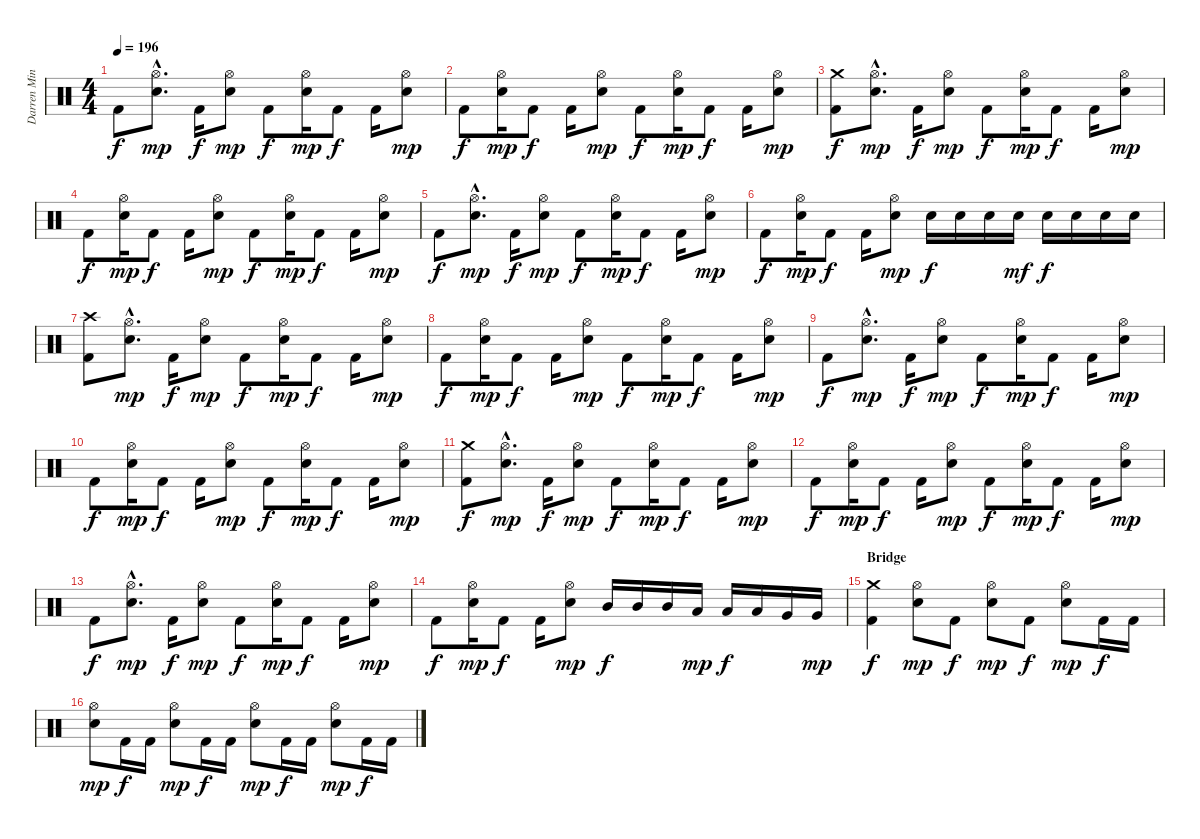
\track ("Darren Minter" "Darren Min") {instrument percussion}
\staff {score}
\articulation defaults
\ts (4 4)
\tempo 196
\clef neutral
\ks c "Kick (hit) 2".8{dy f}
("Hi-Hat (open)"{hac} "Snare (hit) 2"{hac}).8{d dy mp} "Kick (hit) 2".16{dy f} ("Hi-Hat (open)" "Snare (hit) 2").8{dy mp} "Kick (hit) 2".8{dy f} ("Hi-Hat (open)" "Snare (hit) 2").16{dy mp} "Kick (hit) 2".8{dy f} "Kick (hit) 2".16 ("Hi-Hat (open)" "Snare (hit) 2").8{dy mp} |
"Kick (hit) 2".8{dy f} ("Hi-Hat (open)" "Snare (hit) 2").16{dy mp} "Kick (hit) 2".8{dy f} "Kick (hit) 2".16 ("Hi-Hat (open)" "Snare (hit) 2").8{dy mp} "Kick (hit) 2".8{dy f} ("Hi-Hat (open)" "Snare (hit) 2").16{dy mp} "Kick (hit) 2".8{dy f} "Kick (hit) 2".16 ("Hi-Hat (open)" "Snare (hit) 2").8{dy mp} |
("Kick (hit) 2" "Crash medium (hit)").8{dy f} ("Hi-Hat (open)"{hac} "Snare (hit) 2"{hac}).8{d dy mp} "Kick (hit) 2".16{dy f} ("Hi-Hat (open)" "Snare (hit) 2").8{dy mp} "Kick (hit) 2".8{dy f} ("Hi-Hat (open)" "Snare (hit) 2").16{dy mp} "Kick (hit) 2".8{dy f} "Kick (hit) 2".16 ("Hi-Hat (open)" "Snare (hit) 2").8{dy mp} |
"Kick (hit) 2".8{dy f} ("Hi-Hat (open)" "Snare (hit) 2").16{dy mp} "Kick (hit) 2".8{dy f} "Kick (hit) 2".16 ("Hi-Hat (open)" "Snare (hit) 2").8{dy mp} "Kick (hit) 2".8{dy f} ("Hi-Hat (open)" "Snare (hit) 2").16{dy mp} "Kick (hit) 2".8{dy f} "Kick (hit) 2".16 ("Hi-Hat (open)" "Snare (hit) 2").8{dy mp} |
"Kick (hit) 2".8{dy f} ("Hi-Hat (open)"{hac} "Snare (hit) 2"{hac}).8{d dy mp} "Kick (hit) 2".16{dy f} ("Hi-Hat (open)" "Snare (hit) 2").8{dy mp} "Kick (hit) 2".8{dy f} ("Hi-Hat (open)" "Snare (hit) 2").16{dy mp} "Kick (hit) 2".8{dy f} "Kick (hit) 2".16 ("Hi-Hat (open)" "Snare (hit) 2").8{dy mp} |
"Kick (hit) 2".8{dy f} ("Hi-Hat (open)" "Snare (hit) 2").16{dy mp} "Kick (hit) 2".8{dy f} "Kick (hit) 2".16 ("Hi-Hat (open)" "Snare (hit) 2").8{dy mp} "Snare (hit) 2".16{dy f} "Snare (hit) 2".16 "Snare (hit) 2".16 "Snare (hit) 2".16{dy mf} "Snare (hit) 2".16{dy f} "Snare (hit) 2".16 "Snare (hit) 2".16 "Snare (hit) 2".16 |
("Kick (hit) 2" "Crash high (hit)").8 ("Hi-Hat (open)"{hac} "Snare (hit) 2"{hac}).8{d dy mp} "Kick (hit) 2".16{dy f} ("Hi-Hat (open)" "Snare (hit) 2").8{dy mp} "Kick (hit) 2".8{dy f} ("Hi-Hat (open)" "Snare (hit) 2").16{dy mp} "Kick (hit) 2".8{dy f} "Kick (hit) 2".16 ("Hi-Hat (open)" "Snare (hit) 2").8{dy mp} |
"Kick (hit) 2".8{dy f} ("Hi-Hat (open)" "Snare (hit) 2").16{dy mp} "Kick (hit) 2".8{dy f} "Kick (hit) 2".16 ("Hi-Hat (open)" "Snare (hit) 2").8{dy mp} "Kick (hit) 2".8{dy f} ("Hi-Hat (open)" "Snare (hit) 2").16{dy mp} "Kick (hit) 2".8{dy f} "Kick (hit) 2".16 ("Hi-Hat (open)" "Snare (hit) 2").8{dy mp} |
"Kick (hit) 2".8{dy f} ("Hi-Hat (open)"{hac} "Snare (hit) 2"{hac}).8{d dy mp} "Kick (hit) 2".16{dy f} ("Hi-Hat (open)" "Snare (hit) 2").8{dy mp} "Kick (hit) 2".8{dy f} ("Hi-Hat (open)" "Snare (hit) 2").16{dy mp} "Kick (hit) 2".8{dy f} "Kick (hit) 2".16 ("Hi-Hat (open)" "Snare (hit) 2").8{dy mp} |
"Kick (hit) 2".8{dy f} ("Hi-Hat (open)" "Snare (hit) 2").16{dy mp} "Kick (hit) 2".8{dy f} "Kick (hit) 2".16 ("Hi-Hat (open)" "Snare (hit) 2").8{dy mp} "Kick (hit) 2".8{dy f} ("Hi-Hat (open)" "Snare (hit) 2").16{dy mp} "Kick (hit) 2".8{dy f} "Kick (hit) 2".16 ("Hi-Hat (open)" "Snare (hit) 2").8{dy mp} |
("Kick (hit) 2" "Crash medium (hit)").8{dy f} ("Hi-Hat (open)"{hac} "Snare (hit) 2"{hac}).8{d dy mp} "Kick (hit) 2".16{dy f} ("Hi-Hat (open)" "Snare (hit) 2").8{dy mp} "Kick (hit) 2".8{dy f} ("Hi-Hat (open)" "Snare (hit) 2").16{dy mp} "Kick (hit) 2".8{dy f} "Kick (hit) 2".16 ("Hi-Hat (open)" "Snare (hit) 2").8{dy mp} |
"Kick (hit) 2".8{dy f} ("Hi-Hat (open)" "Snare (hit) 2").16{dy mp} "Kick (hit) 2".8{dy f} "Kick (hit) 2".16 ("Hi-Hat (open)" "Snare (hit) 2").8{dy mp} "Kick (hit) 2".8{dy f} ("Hi-Hat (open)" "Snare (hit) 2").16{dy mp} "Kick (hit) 2".8{dy f} "Kick (hit) 2".16 ("Hi-Hat (open)" "Snare (hit) 2").8{dy mp} |
"Kick (hit) 2".8{dy f} ("Hi-Hat (open)"{hac} "Snare (hit) 2"{hac}).8{d dy mp} "Kick (hit) 2".16{dy f} ("Hi-Hat (open)" "Snare (hit) 2").8{dy mp} "Kick (hit) 2".8{dy f} ("Hi-Hat (open)" "Snare (hit) 2").16{dy mp} "Kick (hit) 2".8{dy f} "Kick (hit) 2".16 ("Hi-Hat (open)" "Snare (hit) 2").8{dy mp} |
"Kick (hit) 2".8{dy f} ("Hi-Hat (open)" "Snare (hit) 2").16{dy mp} "Kick (hit) 2".8{dy f} "Kick (hit) 2".16 ("Hi-Hat (open)" "Snare (hit) 2").8{dy mp} "Mid Tom (hit)".16{dy f} "Mid Tom (hit)".16 "Mid Tom (hit)".16 "Low Tom (hit)".16{dy mp} "Low Tom (hit)".16{dy f} "Low Tom (hit)".16 "Very Low Tom (hit)".16 "Very Low Tom (hit)".16{dy mp} |
\section ("" "Bridge")
("Kick (hit) 2" "Crash medium (hit)").4{dy f} ("Hi-Hat (open)" "Snare (hit) 2").8{dy mp} "Kick (hit) 2".8{dy f} ("Hi-Hat (open)" "Snare (hit) 2").8{dy mp} "Kick (hit) 2".8{dy f} ("Hi-Hat (open)" "Snare (hit) 2").8{dy mp} "Kick (hit) 2".16{dy f} "Kick (hit) 2".16 |
("Hi-Hat (open)" "Snare (hit) 2").8{dy mp} "Kick (hit) 2".16{dy f} "Kick (hit) 2".16 ("Hi-Hat (open)" "Snare (hit) 2").8{dy mp} "Kick (hit) 2".16{dy f} "Kick (hit) 2".16 ("Hi-Hat (open)" "Snare (hit) 2").8{dy mp} "Kick (hit) 2".16{dy f} "Kick (hit) 2".16 ("Hi-Hat (open)" "Snare (hit) 2").8{dy mp} "Kick (hit) 2".16{dy f} "Kick (hit) 2".16
